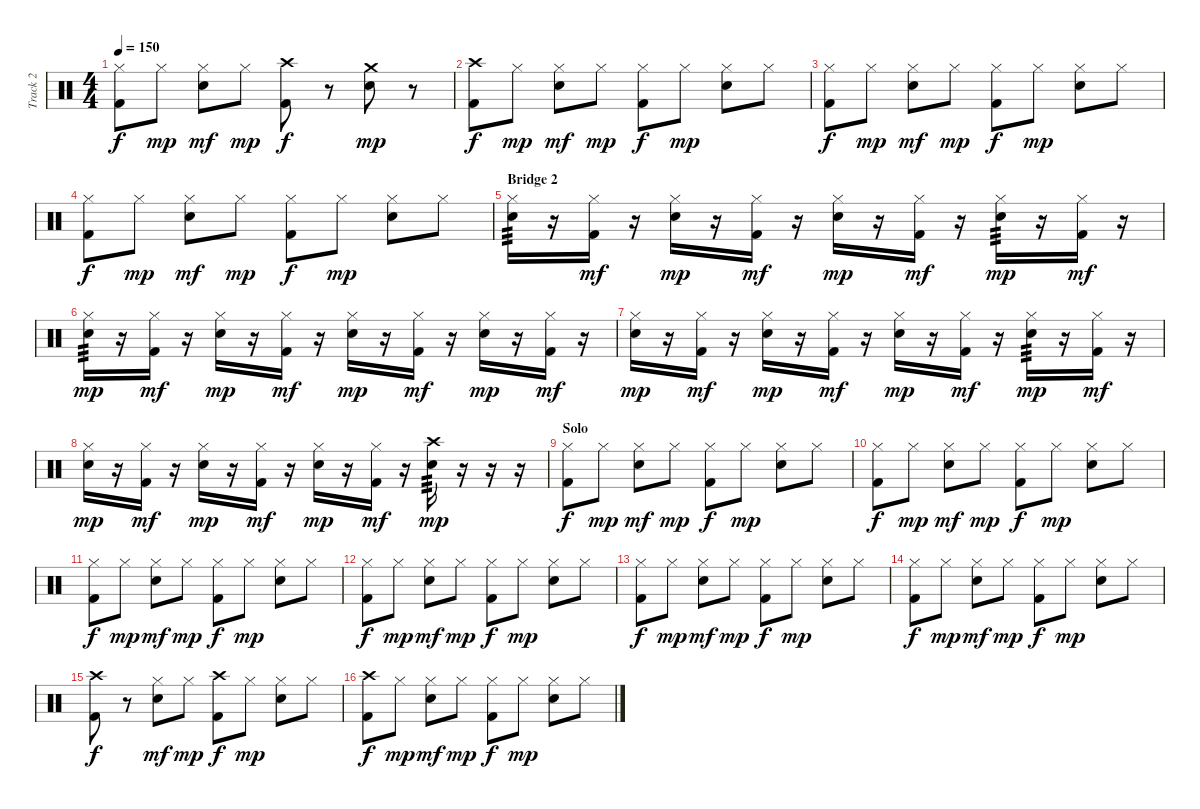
\track ("Track 2" "Track 2") {instrument percussion}
\staff {score}
\articulation defaults
\ts (4 4)
\tempo 150
\clef neutral
\ks c
("Hi-Hat (closed)" "Kick (hit) 2").8{dy f} "Hi-Hat (closed)".8{dy mp} ("Hi-Hat (closed)" "Electric Snare (hit)").8{dy mf} "Hi-Hat (closed)".8{dy mp} ("Crash high (hit)" "Kick (hit) 2").8{dy f} r.8 ("Crash medium (hit)" "Electric Snare (hit)").8{dy mp} r.8 |
("Crash high (hit)" "Kick (hit) 2").8{dy f} "Hi-Hat (closed)".8{dy mp} ("Hi-Hat (closed)" "Electric Snare (hit)").8{dy mf} "Hi-Hat (closed)".8{dy mp} ("Hi-Hat (closed)" "Kick (hit) 2").8{dy f} "Hi-Hat (closed)".8{dy mp} ("Hi-Hat (closed)" "Electric Snare (hit)").8 "Hi-Hat (closed)".8 |
("Hi-Hat (closed)" "Kick (hit) 2").8{dy f} "Hi-Hat (closed)".8{dy mp} ("Hi-Hat (closed)" "Electric Snare (hit)").8{dy mf} "Hi-Hat (closed)".8{dy mp} ("Hi-Hat (closed)" "Kick (hit) 2").8{dy f} "Hi-Hat (closed)".8{dy mp} ("Hi-Hat (closed)" "Electric Snare (hit)").8 "Hi-Hat (closed)".8 |
("Hi-Hat (closed)" "Kick (hit) 2").8{dy f} "Hi-Hat (closed)".8{dy mp} ("Hi-Hat (closed)" "Electric Snare (hit)").8{dy mf} "Hi-Hat (closed)".8{dy mp} ("Hi-Hat (closed)" "Kick (hit) 2").8{dy f} "Hi-Hat (closed)".8{dy mp} ("Hi-Hat (closed)" "Electric Snare (hit)").8 "Hi-Hat (closed)".8 |
\section ("" "Bridge 2")
("Hi-Hat (closed)" "Electric Snare (hit)").16{tp 3} r.16 ("Hi-Hat (closed)" "Kick (hit) 2").16{dy mf} r.16 ("Hi-Hat (closed)" "Electric Snare (hit)").16{dy mp} r.16 ("Hi-Hat (closed)" "Kick (hit) 2").16{dy mf} r.16 ("Hi-Hat (closed)" "Electric Snare (hit)").16{dy mp} r.16 ("Hi-Hat (closed)" "Kick (hit) 2").16{dy mf} r.16 ("Hi-Hat (closed)" "Electric Snare (hit)").16{tp 3 dy mp} r.16 ("Hi-Hat (closed)" "Kick (hit) 2").16{dy mf} r.16 |
("Hi-Hat (closed)" "Electric Snare (hit)").16{tp 3 dy mp} r.16 ("Hi-Hat (closed)" "Kick (hit) 2").16{dy mf} r.16 ("Hi-Hat (closed)" "Electric Snare (hit)").16{dy mp} r.16 ("Hi-Hat (closed)" "Kick (hit) 2").16{dy mf} r.16 ("Hi-Hat (closed)" "Electric Snare (hit)").16{dy mp} r.16 ("Hi-Hat (closed)" "Kick (hit) 2").16{dy mf} r.16 ("Hi-Hat (closed)" "Electric Snare (hit)").16{dy mp} r.16 ("Hi-Hat (closed)" "Kick (hit) 2").16{dy mf} r.16 |
("Hi-Hat (closed)" "Electric Snare (hit)").16{dy mp} r.16 ("Hi-Hat (closed)" "Kick (hit) 2").16{dy mf} r.16 ("Hi-Hat (closed)" "Electric Snare (hit)").16{dy mp} r.16 ("Hi-Hat (closed)" "Kick (hit) 2").16{dy mf} r.16 ("Hi-Hat (closed)" "Electric Snare (hit)").16{dy mp} r.16 ("Hi-Hat (closed)" "Kick (hit) 2").16{dy mf} r.16 ("Hi-Hat (closed)" "Electric Snare (hit)").16{tp 3 dy mp} r.16 ("Hi-Hat (closed)" "Kick (hit) 2").16{dy mf} r.16 |
("Hi-Hat (closed)" "Electric Snare (hit)").16{dy mp} r.16 ("Hi-Hat (closed)" "Kick (hit) 2").16{dy mf} r.16 ("Hi-Hat (closed)" "Electric Snare (hit)").16{dy mp} r.16 ("Hi-Hat (closed)" "Kick (hit) 2").16{dy mf} r.16 ("Hi-Hat (closed)" "Electric Snare (hit)").16{dy mp} r.16 ("Hi-Hat (closed)" "Kick (hit) 2").16{dy mf} r.16 ("Crash high (hit)" "Electric Snare (hit)").16{tp 3 dy mp} r.16 r.16 r.16 |
\section ("" "Solo")
("Hi-Hat (closed)" "Kick (hit) 2").8{dy f} "Hi-Hat (closed)".8{dy mp} ("Hi-Hat (closed)" "Electric Snare (hit)").8{dy mf} "Hi-Hat (closed)".8{dy mp} ("Hi-Hat (closed)" "Kick (hit) 2").8{dy f} "Hi-Hat (closed)".8{dy mp} ("Hi-Hat (closed)" "Electric Snare (hit)").8 "Hi-Hat (closed)".8 |
("Hi-Hat (closed)" "Kick (hit) 2").8{dy f} "Hi-Hat (closed)".8{dy mp} ("Hi-Hat (closed)" "Electric Snare (hit)").8{dy mf} "Hi-Hat (closed)".8{dy mp} ("Hi-Hat (closed)" "Kick (hit) 2").8{dy f} "Hi-Hat (closed)".8{dy mp} ("Hi-Hat (closed)" "Electric Snare (hit)").8 "Hi-Hat (closed)".8 |
("Hi-Hat (closed)" "Kick (hit) 2").8{dy f} "Hi-Hat (closed)".8{dy mp} ("Hi-Hat (closed)" "Electric Snare (hit)").8{dy mf} "Hi-Hat (closed)".8{dy mp} ("Hi-Hat (closed)" "Kick (hit) 2").8{dy f} "Hi-Hat (closed)".8{dy mp} ("Hi-Hat (closed)" "Electric Snare (hit)").8 "Hi-Hat (closed)".8 |
("Hi-Hat (closed)" "Kick (hit) 2").8{dy f} "Hi-Hat (closed)".8{dy mp} ("Hi-Hat (closed)" "Electric Snare (hit)").8{dy mf} "Hi-Hat (closed)".8{dy mp} ("Hi-Hat (closed)" "Kick (hit) 2").8{dy f} "Hi-Hat (closed)".8{dy mp} ("Hi-Hat (closed)" "Electric Snare (hit)").8 "Hi-Hat (closed)".8 |
("Hi-Hat (closed)" "Kick (hit) 2").8{dy f} "Hi-Hat (closed)".8{dy mp} ("Hi-Hat (closed)" "Electric Snare (hit)").8{dy mf} "Hi-Hat (closed)".8{dy mp} ("Hi-Hat (closed)" "Kick (hit) 2").8{dy f} "Hi-Hat (closed)".8{dy mp} ("Hi-Hat (closed)" "Electric Snare (hit)").8 "Hi-Hat (closed)".8 |
("Hi-Hat (closed)" "Kick (hit) 2").8{dy f} "Hi-Hat (closed)".8{dy mp} ("Hi-Hat (closed)" "Electric Snare (hit)").8{dy mf} "Hi-Hat (closed)".8{dy mp} ("Hi-Hat (closed)" "Kick (hit) 2").8{dy f} "Hi-Hat (closed)".8{dy mp} ("Hi-Hat (closed)" "Electric Snare (hit)").8 "Hi-Hat (closed)".8 |
("Crash high (hit)" "Kick (hit) 2").8{dy f} r.8 ("Hi-Hat (closed)" "Electric Snare (hit)").8{dy mf} "Hi-Hat (closed)".8{dy mp} ("Crash high (hit)" "Kick (hit) 2").8{dy f} "Hi-Hat (closed)".8{dy mp} ("Hi-Hat (closed)" "Electric Snare (hit)").8 "Hi-Hat (closed)".8 |
("Crash high (hit)" "Kick (hit) 2").8{dy f} "Hi-Hat (closed)".8{dy mp} ("Hi-Hat (closed)" "Electric Snare (hit)").8{dy mf} "Hi-Hat (closed)".8{dy mp} ("Hi-Hat (closed)" "Kick (hit) 2").8{dy f} "Hi-Hat (closed)".8{dy mp} ("Hi-Hat (closed)" "Electric Snare (hit)").8 "Hi-Hat (closed)".8
